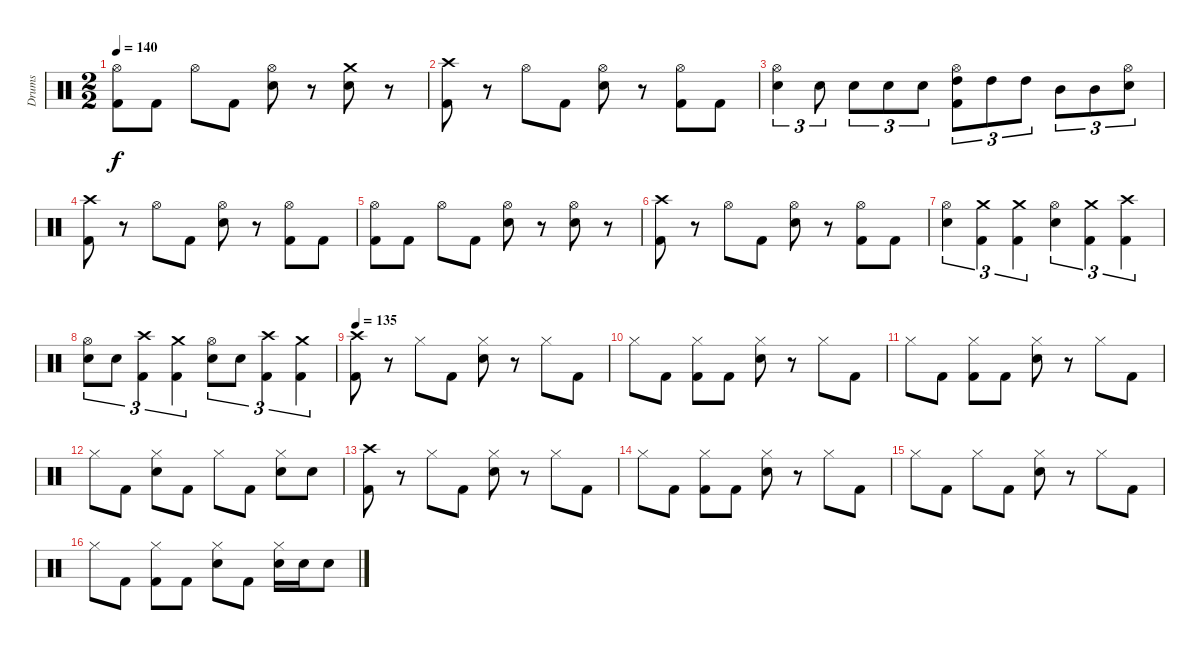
\track ("Drums" "Drums") {instrument percussion}
\staff {score}
\articulation defaults
\ts (2 2)
\tempo 140
\clef neutral
\ks c
("Hi-Hat (open)" "Kick (hit) 2").8{dy f} "Kick (hit) 2".8 "Hi-Hat (open)".8 "Kick (hit) 2".8 ("Hi-Hat (open)" "Snare (hit) 2").8 r.8 ("Crash medium (hit)" "Snare (hit) 2").8 r.8 |
("Crash high (hit)" "Kick (hit) 2").8 r.8 "Hi-Hat (open)".8 "Kick (hit) 2".8 ("Hi-Hat (open)" "Snare (hit) 2").8 r.8 ("Hi-Hat (open)" "Kick (hit) 2").8 "Kick (hit) 2".8 |
("Hi-Hat (open)" "Snare (hit) 2").4{tu (3 2)} "Snare (hit) 2".8{tu (3 2)} "Snare (hit) 2".8{tu (3 2)} "Snare (hit) 2".8{tu (3 2)} "Snare (hit) 2".8{tu (3 2)} ("Hi-Hat (open)" "High Tom (hit)" "Kick (hit) 2").8{tu (3 2)} "High Tom (hit)".8{tu (3 2)} "High Tom (hit)".8{tu (3 2)} "Mid Tom (hit)".8{tu (3 2)} "Mid Tom (hit)".8{tu (3 2)} ("Hi-Hat (open)" "Snare (hit) 2").8{tu (3 2)} |
("Crash high (hit)" "Kick (hit) 2").8 r.8 "Hi-Hat (open)".8 "Kick (hit) 2".8 ("Hi-Hat (open)" "Snare (hit) 2").8 r.8 ("Hi-Hat (open)" "Kick (hit) 2").8 "Kick (hit) 2".8 |
("Hi-Hat (open)" "Kick (hit) 2").8 "Kick (hit) 2".8 "Hi-Hat (open)".8 "Kick (hit) 2".8 ("Hi-Hat (open)" "Snare (hit) 2").8 r.8 ("Hi-Hat (open)" "Snare (hit) 2").8 r.8 |
("Crash high (hit)" "Kick (hit) 2").8 r.8 "Hi-Hat (open)".8 "Kick (hit) 2".8 ("Hi-Hat (open)" "Snare (hit) 2").8 r.8 ("Hi-Hat (open)" "Kick (hit) 2").8 "Kick (hit) 2".8 |
("Hi-Hat (open)" "Snare (hit) 2").4{tu (3 2)} ("Crash medium (hit)" "Kick (hit) 2").4{tu (3 2)} ("Crash medium (hit)" "Kick (hit) 2").4{tu (3 2)} ("Hi-Hat (open)" "Snare (hit) 2").4{tu (3 2)} ("Crash medium (hit)" "Kick (hit) 2").4{tu (3 2)} ("Crash high (hit)" "Kick (hit) 2").4{tu (3 2)} |
("Hi-Hat (open)" "Snare (hit) 2").8{tu (3 2)} "Snare (hit) 2".8{tu (3 2)} ("Crash high (hit)" "Kick (hit) 2").4{tu (3 2)} ("Crash medium (hit)" "Kick (hit) 2").4{tu (3 2)} ("Hi-Hat (open)" "Snare (hit) 2").8{tu (3 2)} "Snare (hit) 2".8{tu (3 2)} ("Crash high (hit)" "Kick (hit) 2").4{tu (3 2)} ("Crash medium (hit)" "Kick (hit) 2").4{tu (3 2)} |
\tempo 135
("Crash high (hit)" "Kick (hit) 2").8 r.8 "Hi-Hat (closed)".8 "Kick (hit) 2".8 ("Hi-Hat (closed)" "Snare (hit) 2").8 r.8 "Hi-Hat (closed)".8 "Kick (hit) 2".8 |
"Hi-Hat (closed)".8 "Kick (hit) 2".8 ("Hi-Hat (closed)" "Kick (hit) 2").8 "Kick (hit) 2".8 ("Hi-Hat (closed)" "Snare (hit) 2").8 r.8 "Hi-Hat (closed)".8 "Kick (hit) 2".8 |
"Hi-Hat (closed)".8 "Kick (hit) 2".8 ("Hi-Hat (closed)" "Kick (hit) 2").8 "Kick (hit) 2".8 ("Hi-Hat (closed)" "Snare (hit) 2").8 r.8 "Hi-Hat (closed)".8 "Kick (hit) 2".8 |
"Hi-Hat (closed)".8 "Kick (hit) 2".8 ("Hi-Hat (closed)" "Snare (hit) 2").8 "Kick (hit) 2".8 "Hi-Hat (closed)".8 "Kick (hit) 2".8 ("Hi-Hat (closed)" "Snare (hit) 2").8 "Snare (hit) 2".8 |
("Crash high (hit)" "Kick (hit) 2").8 r.8 "Hi-Hat (closed)".8 "Kick (hit) 2".8 ("Hi-Hat (closed)" "Snare (hit) 2").8 r.8 "Hi-Hat (closed)".8 "Kick (hit) 2".8 |
"Hi-Hat (closed)".8 "Kick (hit) 2".8 ("Hi-Hat (closed)" "Kick (hit) 2").8 "Kick (hit) 2".8 ("Hi-Hat (closed)" "Snare (hit) 2").8 r.8 "Hi-Hat (closed)".8 "Kick (hit) 2".8 |
"Hi-Hat (closed)".8 "Kick (hit) 2".8 "Hi-Hat (closed)".8 "Kick (hit) 2".8 ("Hi-Hat (closed)" "Snare (hit) 2").8 r.8 "Hi-Hat (closed)".8 "Kick (hit) 2".8 |
"Hi-Hat (closed)".8 "Kick (hit) 2".8 ("Hi-Hat (closed)" "Kick (hit) 2").8 "Kick (hit) 2".8 ("Hi-Hat (closed)" "Snare (hit) 2").8 "Kick (hit) 2".8 ("Hi-Hat (closed)" "Snare (hit) 2").16 "Snare (hit) 2".16 "Snare (hit) 2".8
